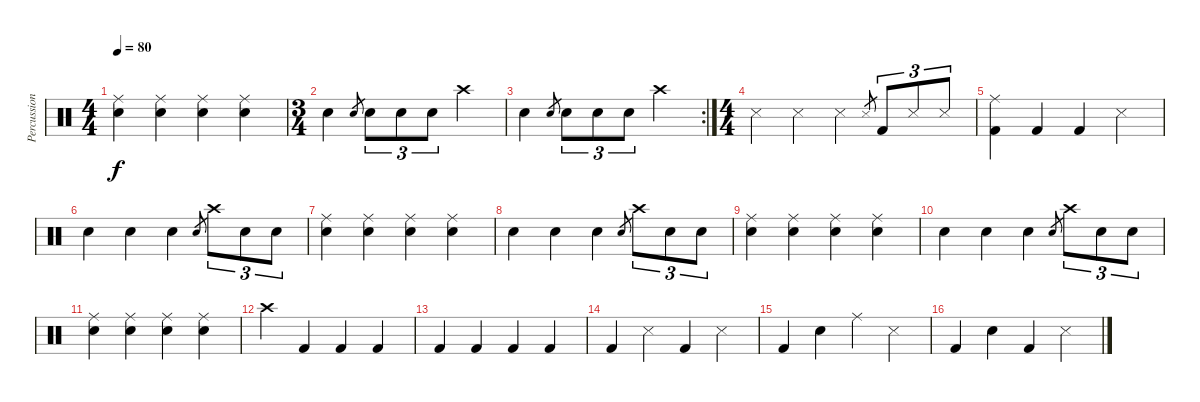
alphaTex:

\track ("Percussions" "Percussion") {instrument percussion}
\staff {score}
\articulation defaults
\ts (4 4)
\tempo 80
\clef neutral
\ks c
("Ride (middle)" "Snare (hit) 2").4{dy f} ("Ride (middle)" "Snare (hit) 2").4 ("Ride (middle)" "Snare (hit) 2").4 ("Ride (middle)" "Electric Snare (hit)").4 |
\ts (3 4)
"Snare (hit) 2".4 "Electric Snare (hit)".8{gr} "Snare (hit) 2".8{tu (3 2)} "Snare (hit) 2".8{tu (3 2)} "Electric Snare (hit)".8{tu (3 2)} "Crash high (hit)".4 |
\rc 2 "Snare (hit) 2".4 "Electric Snare (hit)".8{gr} "Snare (hit) 2".8{tu (3 2)} "Snare (hit) 2".8{tu (3 2)} "Electric Snare (hit)".8{tu (3 2)} "Crash high (hit)".4
|
\ts (4 4)
"Snare (side stick) 3".4 "Snare (side stick) 3".4 "Snare (side stick) 3".4 "Snare (side stick) 3".8{gr} "Kick (hit) 2".8{tu (3 2)} "Snare (side stick) 3".8{tu (3 2)} "Snare (side stick) 3".8{tu (3 2)} |
("Ride (middle)" "Kick (hit) 2").4 "Kick (hit) 2".4 "Kick (hit) 2".4 "Snare (side stick) 3".4 |
"Snare (hit) 2".4 "Snare (hit) 2".4 "Snare (hit) 2".4 "Snare (hit) 2".8{gr} "Crash high (hit)".8{tu (3 2)} "Electric Snare (hit)".8{tu (3 2)} "Electric Snare (hit)".8{tu (3 2)} |
("Ride (middle)" "Snare (hit) 2").4 ("Ride (middle)" "Snare (hit) 2").4 ("Ride (middle)" "Snare (hit) 2").4 ("Ride (middle)" "Electric Snare (hit)").4 |
"Snare (hit) 2".4 "Snare (hit) 2".4 "Snare (hit) 2".4 "Snare (hit) 2".8{gr} "Crash high (hit)".8{tu (3 2)} "Electric Snare (hit)".8{tu (3 2)} "Electric Snare (hit)".8{tu (3 2)} |
("Ride (middle)" "Snare (hit) 2").4 ("Ride (middle)" "Snare (hit) 2").4 ("Ride (middle)" "Snare (hit) 2").4 ("Ride (middle)" "Electric Snare (hit)").4 |
"Snare (hit) 2".4 "Snare (hit) 2".4 "Snare (hit) 2".4 "Snare (hit) 2".8{gr} "Crash high (hit)".8{tu (3 2)} "Electric Snare (hit)".8{tu (3 2)} "Electric Snare (hit)".8{tu (3 2)} |
("Ride (middle)" "Snare (hit) 2").4 ("Ride (middle)" "Snare (hit) 2").4 ("Ride (middle)" "Snare (hit) 2").4 ("Ride (middle)" "Electric Snare (hit)").4 |
"Crash high (hit)".4 "Kick (hit) 2".4 "Kick (hit) 2".4 "Kick (hit) 2".4 |
"Kick (hit) 2".4 "Kick (hit) 2".4 "Kick (hit) 2".4 "Kick (hit) 2".4 |
"Kick (hit) 2".4 "Snare (side stick) 3".4 "Kick (hit) 2".4 "Snare (side stick) 3".4 |
"Kick (hit) 2".4 "Electric Snare (hit)".4 "Ride (middle)".4 "Snare (side stick) 3".4 |
"Kick (hit) 2".4 "Snare (hit) 2".4 "Kick (hit) 2".4 "Snare (side stick) 3".4
